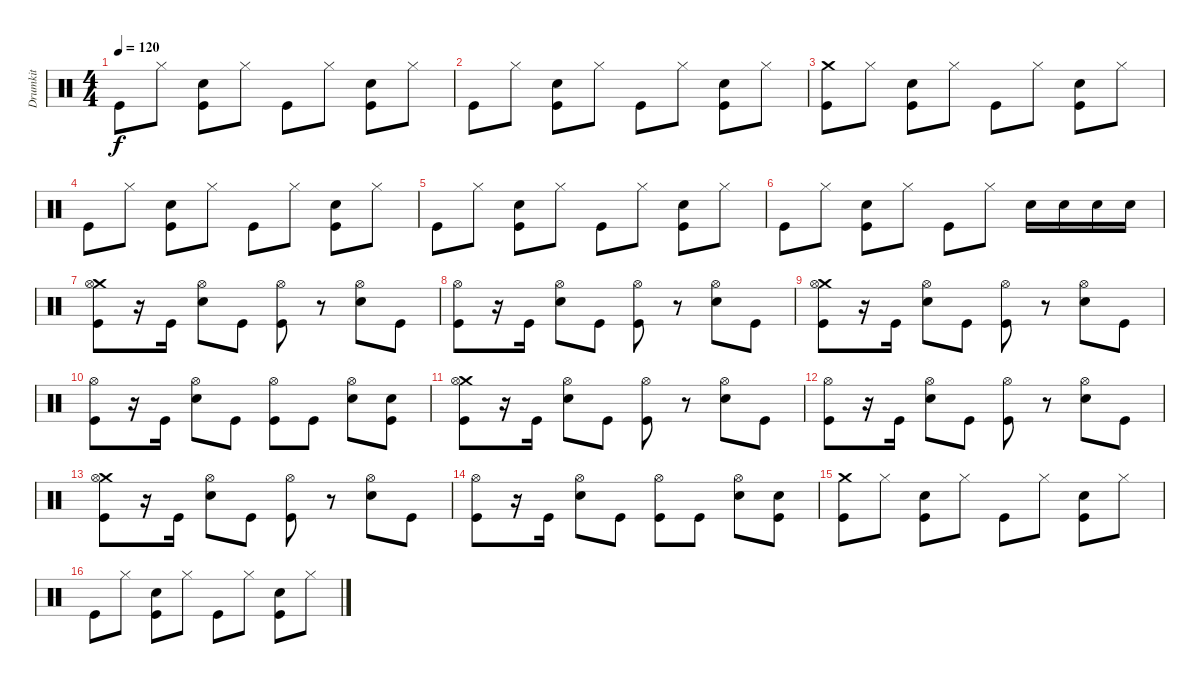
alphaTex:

\track ("Drumkit" "Drumkit") {instrument percussion}
\staff {score}
\articulation defaults
\ts (4 4)
\tempo 120
\clef neutral
\ks c "Kick (hit)".8{dy f} "Hi-Hat (closed)".8
("Snare (hit) 2" "Kick (hit)").8 "Hi-Hat (closed)".8 "Kick (hit)".8 "Hi-Hat (closed)".8 ("Snare (hit) 2" "Kick (hit)").8 "Hi-Hat (closed)".8 |
"Kick (hit)".8 "Hi-Hat (closed)".8 ("Snare (hit) 2" "Kick (hit)").8 "Hi-Hat (closed)".8 "Kick (hit)".8 "Hi-Hat (closed)".8 ("Snare (hit) 2" "Kick (hit)").8 "Hi-Hat (closed)".8 |
("Crash medium (hit)" "Kick (hit)").8 "Hi-Hat (closed)".8 ("Snare (hit) 2" "Kick (hit)").8 "Hi-Hat (closed)".8 "Kick (hit)".8 "Hi-Hat (closed)".8 ("Snare (hit) 2" "Kick (hit)").8 "Hi-Hat (closed)".8 |
"Kick (hit)".8 "Hi-Hat (closed)".8 ("Snare (hit) 2" "Kick (hit)").8 "Hi-Hat (closed)".8 "Kick (hit)".8 "Hi-Hat (closed)".8 ("Snare (hit) 2" "Kick (hit)").8 "Hi-Hat (closed)".8 |
"Kick (hit)".8 "Hi-Hat (closed)".8 ("Snare (hit) 2" "Kick (hit)").8 "Hi-Hat (closed)".8 "Kick (hit)".8 "Hi-Hat (closed)".8 ("Snare (hit) 2" "Kick (hit)").8 "Hi-Hat (closed)".8 |
"Kick (hit)".8 "Hi-Hat (closed)".8 ("Snare (hit) 2" "Kick (hit)").8 "Hi-Hat (closed)".8 "Kick (hit)".8 "Hi-Hat (closed)".8 "Snare (hit) 2".16 "Snare (hit) 2".16 "Snare (hit) 2".16 "Snare (hit) 2".16 |
("Crash medium (hit)" "Hi-Hat (open)" "Kick (hit)").8 r.16 "Kick (hit)".16 ("Hi-Hat (open)" "Snare (hit) 2").8 "Kick (hit)".8 ("Hi-Hat (open)" "Kick (hit)").8 r.8 ("Hi-Hat (open)" "Snare (hit) 2").8 "Kick (hit)".8 |
("Hi-Hat (open)" "Kick (hit)").8 r.16 "Kick (hit)".16 ("Hi-Hat (open)" "Snare (hit) 2").8 "Kick (hit)".8 ("Hi-Hat (open)" "Kick (hit)").8 r.8 ("Hi-Hat (open)" "Snare (hit) 2").8 "Kick (hit)".8 |
("Crash medium (hit)" "Hi-Hat (open)" "Kick (hit)").8 r.16 "Kick (hit)".16 ("Hi-Hat (open)" "Snare (hit) 2").8 "Kick (hit)".8 ("Hi-Hat (open)" "Kick (hit)").8 r.8 ("Hi-Hat (open)" "Snare (hit) 2").8 "Kick (hit)".8 |
("Hi-Hat (open)" "Kick (hit)").8 r.16 "Kick (hit)".16 ("Hi-Hat (open)" "Snare (hit) 2").8 "Kick (hit)".8 ("Hi-Hat (open)" "Kick (hit)").8 "Kick (hit)".8 ("Hi-Hat (open)" "Snare (hit) 2").8 ("Snare (hit) 2" "Kick (hit)").8 |
("Crash medium (hit)" "Hi-Hat (open)" "Kick (hit)").8 r.16 "Kick (hit)".16 ("Hi-Hat (open)" "Snare (hit) 2").8 "Kick (hit)".8 ("Hi-Hat (open)" "Kick (hit)").8 r.8 ("Hi-Hat (open)" "Snare (hit) 2").8 "Kick (hit)".8 |
("Hi-Hat (open)" "Kick (hit)").8 r.16 "Kick (hit)".16 ("Hi-Hat (open)" "Snare (hit) 2").8 "Kick (hit)".8 ("Hi-Hat (open)" "Kick (hit)").8 r.8 ("Hi-Hat (open)" "Snare (hit) 2").8 "Kick (hit)".8 |
("Crash medium (hit)" "Hi-Hat (open)" "Kick (hit)").8 r.16 "Kick (hit)".16 ("Hi-Hat (open)" "Snare (hit) 2").8 "Kick (hit)".8 ("Hi-Hat (open)" "Kick (hit)").8 r.8 ("Hi-Hat (open)" "Snare (hit) 2").8 "Kick (hit)".8 |
("Hi-Hat (open)" "Kick (hit)").8 r.16 "Kick (hit)".16 ("Hi-Hat (open)" "Snare (hit) 2").8 "Kick (hit)".8 ("Hi-Hat (open)" "Kick (hit)").8 "Kick (hit)".8 ("Hi-Hat (open)" "Snare (hit) 2").8 ("Snare (hit) 2" "Kick (hit)").8 |
("Crash medium (hit)" "Kick (hit)").8 "Hi-Hat (closed)".8 ("Snare (hit) 2" "Kick (hit)").8 "Hi-Hat (closed)".8 "Kick (hit)".8 "Hi-Hat (closed)".8 ("Snare (hit) 2" "Kick (hit)").8 "Hi-Hat (closed)".8 |
"Kick (hit)".8 "Hi-Hat (closed)".8 ("Snare (hit) 2" "Kick (hit)").8 "Hi-Hat (closed)".8 "Kick (hit)".8 "Hi-Hat (closed)".8 ("Snare (hit) 2" "Kick (hit)").8 "Hi-Hat (closed)".8
